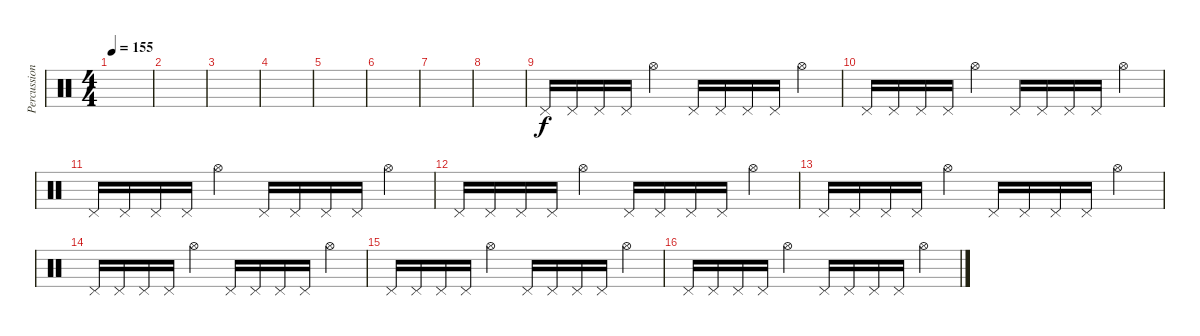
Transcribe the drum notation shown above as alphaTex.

\track ("Percussion" "Percussion") {instrument percussion}
\staff {score}
\articulation defaults
\ts (4 4)
\tempo 155
\clef neutral
\ks c
|
|
|
|
|
|
|
|
"Pedal Hi-Hat (hit)".16 "Pedal Hi-Hat (hit)".16 "Pedal Hi-Hat (hit)".16 "Pedal Hi-Hat (hit)".16 "Hi-Hat (open)".4 "Pedal Hi-Hat (hit)".16 "Pedal Hi-Hat (hit)".16 "Pedal Hi-Hat (hit)".16 "Pedal Hi-Hat (hit)".16 "Hi-Hat (open)".4 |
"Pedal Hi-Hat (hit)".16 "Pedal Hi-Hat (hit)".16 "Pedal Hi-Hat (hit)".16 "Pedal Hi-Hat (hit)".16 "Hi-Hat (open)".4 "Pedal Hi-Hat (hit)".16 "Pedal Hi-Hat (hit)".16 "Pedal Hi-Hat (hit)".16 "Pedal Hi-Hat (hit)".16 "Hi-Hat (open)".4 |
"Pedal Hi-Hat (hit)".16 "Pedal Hi-Hat (hit)".16 "Pedal Hi-Hat (hit)".16 "Pedal Hi-Hat (hit)".16 "Hi-Hat (open)".4 "Pedal Hi-Hat (hit)".16 "Pedal Hi-Hat (hit)".16 "Pedal Hi-Hat (hit)".16 "Pedal Hi-Hat (hit)".16 "Hi-Hat (open)".4 |
"Pedal Hi-Hat (hit)".16 "Pedal Hi-Hat (hit)".16 "Pedal Hi-Hat (hit)".16 "Pedal Hi-Hat (hit)".16 "Hi-Hat (open)".4 "Pedal Hi-Hat (hit)".16 "Pedal Hi-Hat (hit)".16 "Pedal Hi-Hat (hit)".16 "Pedal Hi-Hat (hit)".16 "Hi-Hat (open)".4 |
"Pedal Hi-Hat (hit)".16 "Pedal Hi-Hat (hit)".16 "Pedal Hi-Hat (hit)".16 "Pedal Hi-Hat (hit)".16 "Hi-Hat (open)".4 "Pedal Hi-Hat (hit)".16 "Pedal Hi-Hat (hit)".16 "Pedal Hi-Hat (hit)".16 "Pedal Hi-Hat (hit)".16 "Hi-Hat (open)".4 |
"Pedal Hi-Hat (hit)".16 "Pedal Hi-Hat (hit)".16 "Pedal Hi-Hat (hit)".16 "Pedal Hi-Hat (hit)".16 "Hi-Hat (open)".4 "Pedal Hi-Hat (hit)".16 "Pedal Hi-Hat (hit)".16 "Pedal Hi-Hat (hit)".16 "Pedal Hi-Hat (hit)".16 "Hi-Hat (open)".4 |
"Pedal Hi-Hat (hit)".16 "Pedal Hi-Hat (hit)".16 "Pedal Hi-Hat (hit)".16 "Pedal Hi-Hat (hit)".16 "Hi-Hat (open)".4 "Pedal Hi-Hat (hit)".16 "Pedal Hi-Hat (hit)".16 "Pedal Hi-Hat (hit)".16 "Pedal Hi-Hat (hit)".16 "Hi-Hat (open)".4 |
"Pedal Hi-Hat (hit)".16 "Pedal Hi-Hat (hit)".16 "Pedal Hi-Hat (hit)".16 "Pedal Hi-Hat (hit)".16 "Hi-Hat (open)".4 "Pedal Hi-Hat (hit)".16 "Pedal Hi-Hat (hit)".16 "Pedal Hi-Hat (hit)".16 "Pedal Hi-Hat (hit)".16 "Hi-Hat (open)".4
